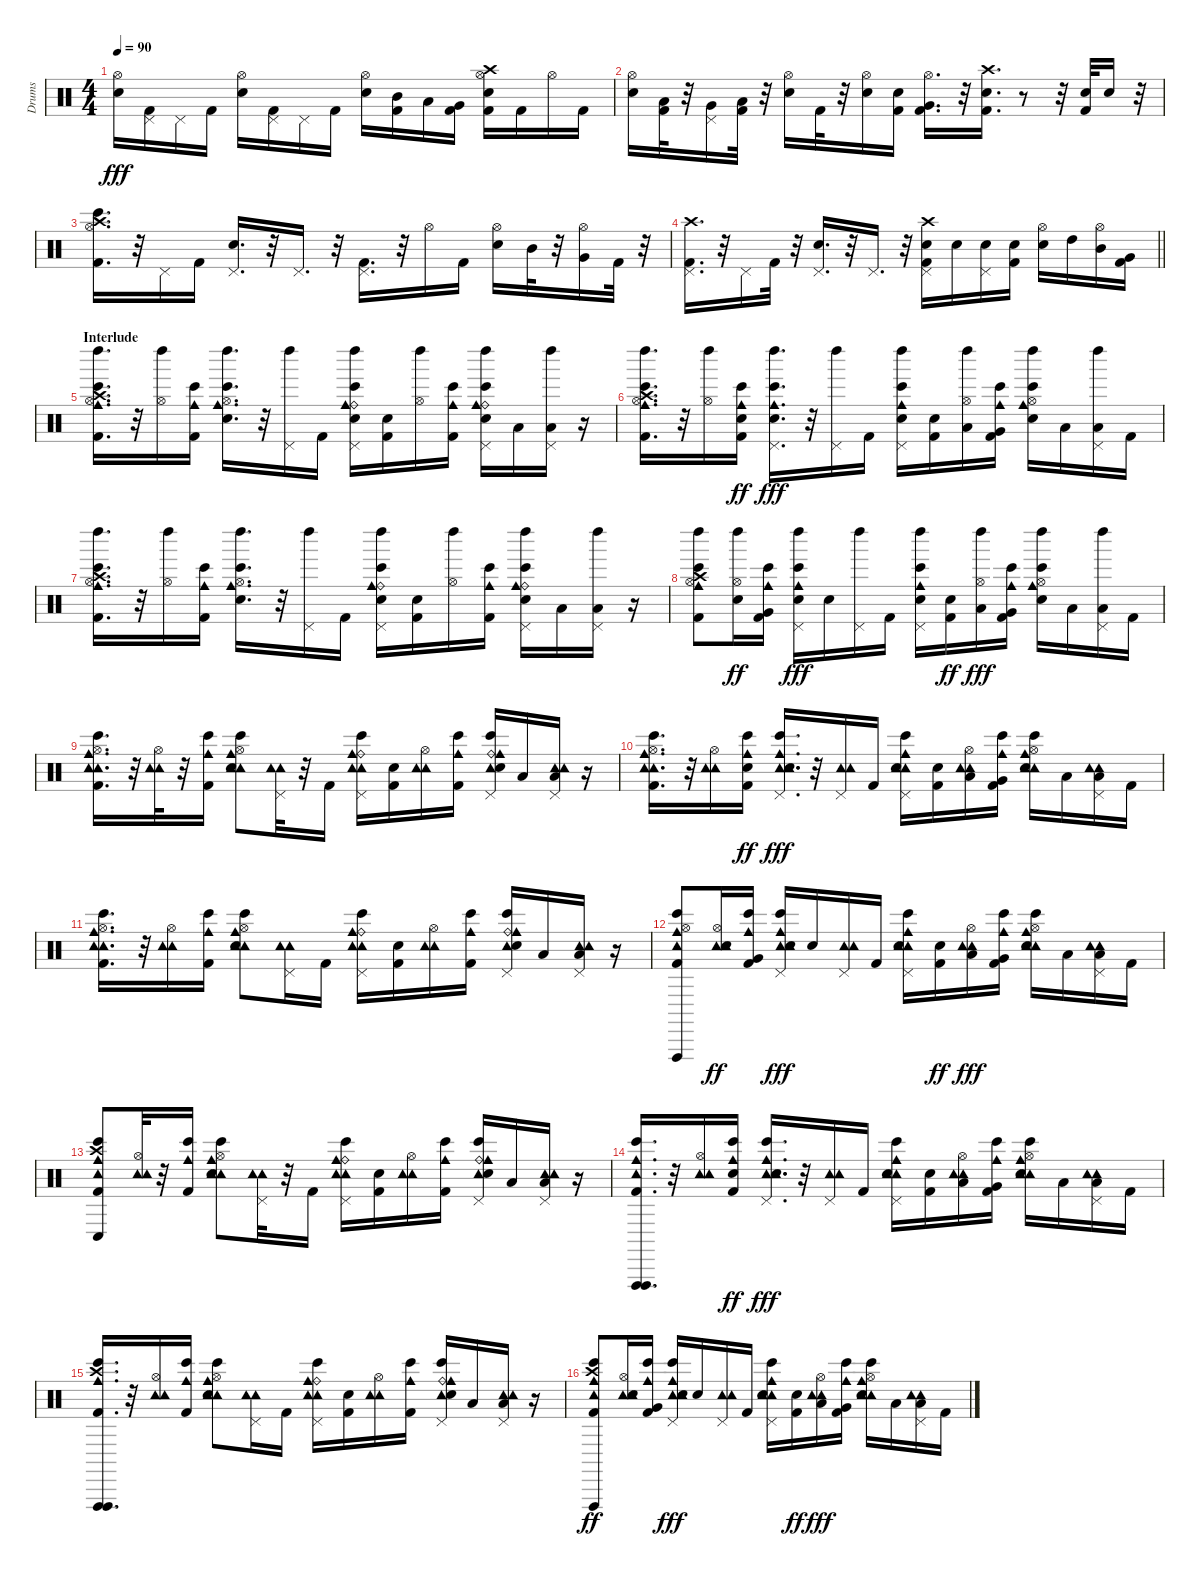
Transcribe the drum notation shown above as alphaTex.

\track ("Drums" "Drums") {instrument percussion}
\staff {score}
\articulation defaults
\ts (4 4)
\tempo 90
\clef neutral
\ks c
("Hi-Hat (open)" "Electric Snare (hit)").16{dy fff} ("Pedal Hi-Hat (hit)" "Kick (hit) 2").16 "Pedal Hi-Hat (hit)".16 "Kick (hit) 2".16 ("Electric Snare (hit)" "Hi-Hat (open)").16 ("Pedal Hi-Hat (hit)" "Kick (hit) 2").16 "Pedal Hi-Hat (hit)".16 "Kick (hit) 2".16 ("Electric Snare (hit)" "Hi-Hat (open)").16 ("Mid Tom (hit)" "Kick (hit) 2").16 "Low Tom (hit)".16 ("Very Low Tom (hit)" "Kick (hit) 2").16 ("Kick (hit) 2" "Crash high (hit)" "Hi-Hat (open)" "Electric Snare (hit)").16 "Kick (hit) 2".16 "Hi-Hat (open)".16 "Kick (hit) 2".16 |
("Hi-Hat (open)" "Electric Snare (hit)").16 ("Kick (hit) 2" "Low Tom (hit)").32 r.32 ("Very Low Tom (hit)" "Pedal Hi-Hat (hit)").16 ("Kick (hit) 2" "Low Floor Tom (hit)").32 r.32 ("Hi-Hat (open)" "Electric Snare (hit)").16 "Kick (hit) 2".32 r.32 ("Electric Snare (hit)" "Hi-Hat (open)").16 ("Electric Snare (hit)" "Kick (hit) 2").16 ("Hi-Hat (open)" "Very Low Tom (hit)" "Kick (hit) 2").16{d} r.32 ("Crash high (hit)" "Kick (hit) 2" "Electric Snare (hit)").16{d} r.8 r.32 ("Kick (hit) 2" "Electric Snare (hit)").32 "Electric Snare (hit)".16 r.32 |
("Bongo High (hit)" "Crash high (hit)" "Kick (hit) 2" "Hi-Hat (open)").16{d} r.32 "Pedal Hi-Hat (hit)".16 "Kick (hit) 2".16 ("Electric Snare (hit)" "Pedal Hi-Hat (hit)").16{d} r.32 "Pedal Hi-Hat (hit)".16{d} r.32 ("Kick (hit) 2" "Pedal Hi-Hat (hit)").16{d} r.32 "Hi-Hat (open)".16 "Kick (hit) 2".16 ("Electric Snare (hit)" "Hi-Hat (open)").16 "Mid Tom (hit)".32 r.32 ("Hi-Hat (open)" "Very Low Tom (hit)").16 "Kick (hit) 2".32 r.32 |
\barLineRight lightlight
("Crash high (hit)" "Kick (hit) 2" "Pedal Hi-Hat (hit)").16{d} r.32 "Pedal Hi-Hat (hit)".16 "Kick (hit) 2".32 r.32 ("Electric Snare (hit)" "Pedal Hi-Hat (hit)").16{d} r.32 "Pedal Hi-Hat (hit)".16{d} r.32 ("Electric Snare (hit)" "Crash high (hit)" "Kick (hit) 2" "Pedal Hi-Hat (hit)").16 "Electric Snare (hit)".16 ("Electric Snare (hit)" "Pedal Hi-Hat (hit)").16 ("Electric Snare (hit)" "Kick (hit) 2").16 ("Electric Snare (hit)" "Hi-Hat (open)").16 "High Tom (hit)".16 ("Mid Tom (hit)" "Hi-Hat (open)").16 ("Very Low Tom (hit)" "Kick (hit) 2").16 |
\section ("" "Interlude")
("Hi-Hat (open)" "Cowbell medium (hit)" "Bongo High (hit)" "Crash high (hit)" "Kick (hit) 2" "Left Maraca (hit)").16{d} r.32 ("Hi-Hat (open)" "Left Maraca (hit)").16 ("Kick (hit) 2" "Bongo High (hit)" "Cowbell medium (hit)").16 ("Hi-Hat (open)" "Cowbell medium (hit)" "Electric Snare (hit)" "Bongo High (hit)" "Left Maraca (hit)").16{d} r.32 ("Pedal Hi-Hat (hit)" "Left Maraca (hit)").16 "Kick (hit) 2".16 ("Pedal Hi-Hat (hit)" "Ride (bell)" "Cowbell medium (hit)" "Bongo High (hit)" "Left Maraca (hit)" "Electric Snare (hit)").16 ("Kick (hit) 2" "Electric Snare (hit)").16 ("Left Maraca (hit)" "Hi-Hat (open)").16 ("Cowbell medium (hit)" "Kick (hit) 2" "Bongo High (hit)").16 ("Pedal Hi-Hat (hit)" "Ride (bell)" "Cowbell medium (hit)" "Electric Snare (hit)" "Bongo High (hit)" "Left Maraca (hit)").16 "Low Tom (hit)".16 ("Pedal Hi-Hat (hit)" "Left Maraca (hit)" "Low Floor Tom (hit)").16 r.16 |
("Hi-Hat (open)" "Cowbell medium (hit)" "Bongo High (hit)" "Crash high (hit)" "Kick (hit) 2" "Left Maraca (hit)").16{d} r.32 ("Hi-Hat (open)" "Left Maraca (hit)").16 ("Kick (hit) 2" "Bongo High (hit)" "Cowbell medium (hit)" "Electric Snare (hit)").16{dy ff} ("Pedal Hi-Hat (hit)" "Cowbell medium (hit)" "Electric Snare (hit)" "Bongo High (hit)" "Left Maraca (hit)").16{d dy fff} r.32 ("Pedal Hi-Hat (hit)" "Left Maraca (hit)").16 "Kick (hit) 2".16 ("Pedal Hi-Hat (hit)" "Cowbell medium (hit)" "Bongo High (hit)" "Left Maraca (hit)" "Electric Snare (hit)").16 ("Kick (hit) 2" "Electric Snare (hit)").16 ("Low Tom (hit)" "Left Maraca (hit)" "Hi-Hat (open)").16 ("Cowbell medium (hit)" "Kick (hit) 2" "Bongo High (hit)" "Very Low Tom (hit)").16 ("Hi-Hat (open)" "Cowbell medium (hit)" "Electric Snare (hit)" "Bongo High (hit)" "Left Maraca (hit)").16 "Low Tom (hit)".16 ("Pedal Hi-Hat (hit)" "Left Maraca (hit)" "Low Floor Tom (hit)").16 "Kick (hit) 2".16 |
("Hi-Hat (open)" "Cowbell medium (hit)" "Bongo High (hit)" "Crash high (hit)" "Kick (hit) 2" "Left Maraca (hit)").16{d} r.32 ("Hi-Hat (open)" "Left Maraca (hit)").16 ("Kick (hit) 2" "Bongo High (hit)" "Cowbell medium (hit)").16 ("Hi-Hat (open)" "Cowbell medium (hit)" "Electric Snare (hit)" "Bongo High (hit)" "Left Maraca (hit)").16{d} r.32 ("Pedal Hi-Hat (hit)" "Left Maraca (hit)").16 "Kick (hit) 2".16 ("Pedal Hi-Hat (hit)" "Ride (bell)" "Cowbell medium (hit)" "Bongo High (hit)" "Left Maraca (hit)" "Electric Snare (hit)").16 ("Kick (hit) 2" "Electric Snare (hit)").16 ("Left Maraca (hit)" "Hi-Hat (open)").16 ("Cowbell medium (hit)" "Kick (hit) 2" "Bongo High (hit)").16 ("Pedal Hi-Hat (hit)" "Ride (bell)" "Cowbell medium (hit)" "Electric Snare (hit)" "Bongo High (hit)" "Left Maraca (hit)").16 "Low Tom (hit)".16 ("Pedal Hi-Hat (hit)" "Left Maraca (hit)" "Low Floor Tom (hit)").16 r.16 |
("Hi-Hat (open)" "Cowbell medium (hit)" "Bongo High (hit)" "Crash high (hit)" "Kick (hit) 2" "Left Maraca (hit)").8 ("Hi-Hat (open)" "Left Maraca (hit)" "Electric Snare (hit)").16{dy ff} ("Kick (hit) 2" "Bongo High (hit)" "Cowbell medium (hit)" "Very Low Tom (hit)").16 ("Pedal Hi-Hat (hit)" "Cowbell medium (hit)" "Electric Snare (hit)" "Bongo High (hit)" "Left Maraca (hit)").16{dy fff} "Electric Snare (hit)".16 ("Pedal Hi-Hat (hit)" "Left Maraca (hit)").16 "Kick (hit) 2".16 ("Pedal Hi-Hat (hit)" "Cowbell medium (hit)" "Bongo High (hit)" "Left Maraca (hit)" "Electric Snare (hit)").16 ("Kick (hit) 2" "Electric Snare (hit)").16{dy ff} ("Low Tom (hit)" "Left Maraca (hit)" "Hi-Hat (open)").16{dy fff} ("Cowbell medium (hit)" "Kick (hit) 2" "Bongo High (hit)" "Very Low Tom (hit)").16 ("Hi-Hat (open)" "Cowbell medium (hit)" "Electric Snare (hit)" "Bongo High (hit)" "Left Maraca (hit)").16 "Low Tom (hit)".16 ("Pedal Hi-Hat (hit)" "Left Maraca (hit)" "Low Floor Tom (hit)").16 "Kick (hit) 2".16 |
("Tambourine (hit)" "Hi-Hat (open)" "Cowbell medium (hit)" "Bongo High (hit)" "Kick (hit) 2" "Tambourine (hit)").16{d} r.32 ("Tambourine (hit)" "Hi-Hat (open)" "Tambourine (hit)").32 r.32 ("Kick (hit) 2" "Bongo High (hit)" "Cowbell medium (hit)").16 ("Tambourine (hit)" "Hi-Hat (open)" "Cowbell medium (hit)" "Electric Snare (hit)" "Bongo High (hit)" "Tambourine (hit)").8 ("Tambourine (hit)" "Pedal Hi-Hat (hit)" "Tambourine (hit)").32 r.32 "Kick (hit) 2".16 ("Tambourine (hit)" "Pedal Hi-Hat (hit)" "Ride (bell)" "Cowbell medium (hit)" "Bongo High (hit)" "Tambourine (hit)").16 ("Kick (hit) 2" "Electric Snare (hit)").16 ("Tambourine (hit)" "Tambourine (hit)" "Hi-Hat (open)").16 ("Cowbell medium (hit)" "Kick (hit) 2" "Bongo High (hit)").16 ("Tambourine (hit)" "Pedal Hi-Hat (hit)" "Ride (bell)" "Cowbell medium (hit)" "Electric Snare (hit)" "Bongo High (hit)").16 "Low Tom (hit)".16 ("Tambourine (hit)" "Pedal Hi-Hat (hit)" "Tambourine (hit)" "Low Floor Tom (hit)").16 r.16 |
("Tambourine (hit)" "Hi-Hat (open)" "Cowbell medium (hit)" "Bongo High (hit)" "Kick (hit) 2" "Tambourine (hit)").16{d} r.32 ("Tambourine (hit)" "Hi-Hat (open)" "Tambourine (hit)").16 ("Kick (hit) 2" "Bongo High (hit)" "Cowbell medium (hit)" "Electric Snare (hit)").16{dy ff} ("Tambourine (hit)" "Pedal Hi-Hat (hit)" "Cowbell medium (hit)" "Electric Snare (hit)" "Bongo High (hit)" "Tambourine (hit)").16{d dy fff} r.32 ("Tambourine (hit)" "Pedal Hi-Hat (hit)" "Tambourine (hit)").16 "Kick (hit) 2".16 ("Tambourine (hit)" "Pedal Hi-Hat (hit)" "Cowbell medium (hit)" "Bongo High (hit)" "Tambourine (hit)" "Electric Snare (hit)").16 ("Kick (hit) 2" "Electric Snare (hit)").16 ("Tambourine (hit)" "Low Tom (hit)" "Tambourine (hit)" "Hi-Hat (open)").16 ("Cowbell medium (hit)" "Kick (hit) 2" "Bongo High (hit)" "Very Low Tom (hit)").16 ("Tambourine (hit)" "Hi-Hat (open)" "Cowbell medium (hit)" "Electric Snare (hit)" "Bongo High (hit)" "Tambourine (hit)").16 "Low Tom (hit)".16 ("Tambourine (hit)" "Pedal Hi-Hat (hit)" "Tambourine (hit)" "Low Floor Tom (hit)").16 "Kick (hit) 2".16 |
("Tambourine (hit)" "Hi-Hat (open)" "Cowbell medium (hit)" "Bongo High (hit)" "Kick (hit) 2" "Tambourine (hit)").16{d} r.32 ("Tambourine (hit)" "Hi-Hat (open)" "Tambourine (hit)").16 ("Kick (hit) 2" "Bongo High (hit)" "Cowbell medium (hit)").16 ("Tambourine (hit)" "Hi-Hat (open)" "Cowbell medium (hit)" "Electric Snare (hit)" "Bongo High (hit)" "Tambourine (hit)").8 ("Tambourine (hit)" "Pedal Hi-Hat (hit)" "Tambourine (hit)").16 "Kick (hit) 2".16 ("Tambourine (hit)" "Pedal Hi-Hat (hit)" "Ride (bell)" "Cowbell medium (hit)" "Bongo High (hit)" "Tambourine (hit)").16 ("Kick (hit) 2" "Electric Snare (hit)").16 ("Tambourine (hit)" "Tambourine (hit)" "Hi-Hat (open)").16 ("Cowbell medium (hit)" "Kick (hit) 2" "Bongo High (hit)").16 ("Tambourine (hit)" "Pedal Hi-Hat (hit)" "Ride (bell)" "Cowbell medium (hit)" "Electric Snare (hit)" "Bongo High (hit)").16 "Low Tom (hit)".16 ("Tambourine (hit)" "Pedal Hi-Hat (hit)" "Tambourine (hit)" "Low Floor Tom (hit)").16 r.16 |
("Tambourine (hit)" "Hi-Hat (open)" "Cowbell medium (hit)" "Bongo High (hit)" "Kick (hit) 2" "Vibraslap (hit)").8 ("Tambourine (hit)" "Hi-Hat (open)" "Tambourine (hit)" "Electric Snare (hit)").16{dy ff} ("Kick (hit) 2" "Bongo High (hit)" "Cowbell medium (hit)" "Very Low Tom (hit)").16 ("Tambourine (hit)" "Pedal Hi-Hat (hit)" "Cowbell medium (hit)" "Electric Snare (hit)" "Bongo High (hit)" "Tambourine (hit)").16{dy fff} "Electric Snare (hit)".16 ("Tambourine (hit)" "Pedal Hi-Hat (hit)" "Tambourine (hit)").16 "Kick (hit) 2".16 ("Tambourine (hit)" "Pedal Hi-Hat (hit)" "Cowbell medium (hit)" "Bongo High (hit)" "Tambourine (hit)" "Electric Snare (hit)").16 ("Kick (hit) 2" "Electric Snare (hit)").16{dy ff} ("Tambourine (hit)" "Low Tom (hit)" "Tambourine (hit)" "Hi-Hat (open)").16{dy fff} ("Cowbell medium (hit)" "Kick (hit) 2" "Bongo High (hit)" "Very Low Tom (hit)").16 ("Tambourine (hit)" "Hi-Hat (open)" "Cowbell medium (hit)" "Electric Snare (hit)" "Bongo High (hit)" "Tambourine (hit)").16 "Low Tom (hit)".16 ("Tambourine (hit)" "Pedal Hi-Hat (hit)" "Tambourine (hit)" "Low Floor Tom (hit)").16 "Kick (hit) 2".16 |
("Conga low (hit)" "Tambourine (hit)" "Cowbell medium (hit)" "Bongo High (hit)" "Kick (hit) 2" "Crash high (hit)").8 ("Tambourine (hit)" "Hi-Hat (open)" "Tambourine (hit)").32 r.32 ("Kick (hit) 2" "Bongo High (hit)" "Cowbell medium (hit)").16 ("Tambourine (hit)" "Hi-Hat (open)" "Cowbell medium (hit)" "Electric Snare (hit)" "Bongo High (hit)" "Tambourine (hit)").8 ("Tambourine (hit)" "Pedal Hi-Hat (hit)" "Tambourine (hit)").32 r.32 "Kick (hit) 2".16 ("Tambourine (hit)" "Pedal Hi-Hat (hit)" "Ride (bell)" "Cowbell medium (hit)" "Bongo High (hit)" "Tambourine (hit)").16 ("Kick (hit) 2" "Electric Snare (hit)").16 ("Tambourine (hit)" "Tambourine (hit)" "Hi-Hat (open)").16 ("Cowbell medium (hit)" "Kick (hit) 2" "Bongo High (hit)").16 ("Tambourine (hit)" "Pedal Hi-Hat (hit)" "Ride (bell)" "Cowbell medium (hit)" "Electric Snare (hit)" "Bongo High (hit)").16 "Low Tom (hit)".16 ("Tambourine (hit)" "Pedal Hi-Hat (hit)" "Tambourine (hit)" "Low Floor Tom (hit)").16 r.16 |
("Tambourine (hit)" "Vibraslap (hit)" "Cowbell medium (hit)" "Bongo High (hit)" "Kick (hit) 2" "Vibraslap (hit)").16{d} r.32 ("Tambourine (hit)" "Hi-Hat (open)" "Tambourine (hit)").16 ("Kick (hit) 2" "Bongo High (hit)" "Cowbell medium (hit)" "Electric Snare (hit)").16{dy ff} ("Tambourine (hit)" "Pedal Hi-Hat (hit)" "Cowbell medium (hit)" "Electric Snare (hit)" "Bongo High (hit)" "Tambourine (hit)").16{d dy fff} r.32 ("Tambourine (hit)" "Pedal Hi-Hat (hit)" "Tambourine (hit)").16 "Kick (hit) 2".16 ("Tambourine (hit)" "Pedal Hi-Hat (hit)" "Cowbell medium (hit)" "Bongo High (hit)" "Tambourine (hit)" "Electric Snare (hit)").16 ("Kick (hit) 2" "Electric Snare (hit)").16 ("Tambourine (hit)" "Low Tom (hit)" "Tambourine (hit)" "Hi-Hat (open)").16 ("Cowbell medium (hit)" "Kick (hit) 2" "Bongo High (hit)" "Very Low Tom (hit)").16 ("Tambourine (hit)" "Hi-Hat (open)" "Cowbell medium (hit)" "Electric Snare (hit)" "Bongo High (hit)" "Tambourine (hit)").16 "Low Tom (hit)".16 ("Tambourine (hit)" "Pedal Hi-Hat (hit)" "Tambourine (hit)" "Low Floor Tom (hit)").16 "Kick (hit) 2".16 |
("Vibraslap (hit)" "Vibraslap (hit)" "Cowbell medium (hit)" "Bongo High (hit)" "Crash high (hit)" "Kick (hit) 2").16{d} r.32 ("Tambourine (hit)" "Hi-Hat (open)" "Tambourine (hit)").16 ("Kick (hit) 2" "Bongo High (hit)" "Cowbell medium (hit)").16 ("Tambourine (hit)" "Hi-Hat (open)" "Cowbell medium (hit)" "Electric Snare (hit)" "Bongo High (hit)" "Tambourine (hit)").8 ("Tambourine (hit)" "Pedal Hi-Hat (hit)" "Tambourine (hit)").16 "Kick (hit) 2".16 ("Tambourine (hit)" "Pedal Hi-Hat (hit)" "Ride (bell)" "Cowbell medium (hit)" "Bongo High (hit)" "Tambourine (hit)").16 ("Kick (hit) 2" "Electric Snare (hit)").16 ("Tambourine (hit)" "Tambourine (hit)" "Hi-Hat (open)").16 ("Cowbell medium (hit)" "Kick (hit) 2" "Bongo High (hit)").16 ("Tambourine (hit)" "Pedal Hi-Hat (hit)" "Ride (bell)" "Cowbell medium (hit)" "Electric Snare (hit)" "Bongo High (hit)").16 "Low Tom (hit)".16 ("Tambourine (hit)" "Pedal Hi-Hat (hit)" "Tambourine (hit)" "Low Floor Tom (hit)").16 r.16 |
("Tambourine (hit)" "Vibraslap (hit)" "Cowbell medium (hit)" "Bongo High (hit)" "Kick (hit) 2" "Crash high (hit)").8{dy ff} ("Tambourine (hit)" "Hi-Hat (open)" "Tambourine (hit)" "Electric Snare (hit)").16 ("Kick (hit) 2" "Bongo High (hit)" "Cowbell medium (hit)" "Very Low Tom (hit)").16 ("Tambourine (hit)" "Pedal Hi-Hat (hit)" "Cowbell medium (hit)" "Electric Snare (hit)" "Bongo High (hit)" "Tambourine (hit)").16{dy fff} "Electric Snare (hit)".16 ("Tambourine (hit)" "Pedal Hi-Hat (hit)" "Tambourine (hit)").16 "Kick (hit) 2".16 ("Tambourine (hit)" "Pedal Hi-Hat (hit)" "Cowbell medium (hit)" "Bongo High (hit)" "Tambourine (hit)" "Electric Snare (hit)").16 ("Kick (hit) 2" "Electric Snare (hit)").16{dy ff} ("Tambourine (hit)" "Low Tom (hit)" "Tambourine (hit)" "Hi-Hat (open)").16{dy fff} ("Cowbell medium (hit)" "Kick (hit) 2" "Bongo High (hit)" "Very Low Tom (hit)").16 ("Tambourine (hit)" "Hi-Hat (open)" "Cowbell medium (hit)" "Electric Snare (hit)" "Bongo High (hit)" "Tambourine (hit)").16 "Low Tom (hit)".16 ("Tambourine (hit)" "Pedal Hi-Hat (hit)" "Tambourine (hit)" "Low Floor Tom (hit)").16 "Kick (hit) 2".16
